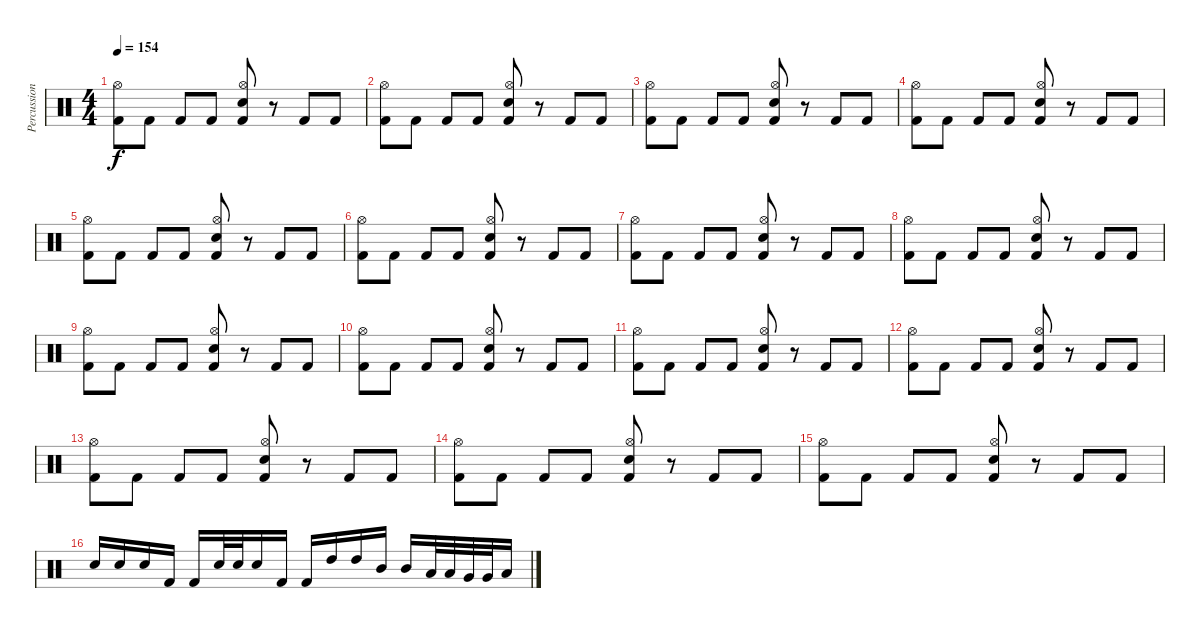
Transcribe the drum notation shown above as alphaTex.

\track ("Percussion" "Percussion") {instrument percussion}
\staff {score}
\articulation defaults
\ts (4 4)
\tempo 154
\clef neutral
\ks c
("Kick (hit) 2" "Hi-Hat (open)").8{dy f} "Kick (hit) 2".8 "Kick (hit) 2".8 "Kick (hit) 2".8 ("Kick (hit) 2" "Electric Snare (hit)" "Hi-Hat (open)").8 r.8 "Kick (hit) 2".8 "Kick (hit) 2".8 |
("Kick (hit) 2" "Hi-Hat (open)").8 "Kick (hit) 2".8 "Kick (hit) 2".8 "Kick (hit) 2".8 ("Kick (hit) 2" "Electric Snare (hit)" "Hi-Hat (open)").8 r.8 "Kick (hit) 2".8 "Kick (hit) 2".8 |
("Kick (hit) 2" "Hi-Hat (open)").8 "Kick (hit) 2".8 "Kick (hit) 2".8 "Kick (hit) 2".8 ("Kick (hit) 2" "Electric Snare (hit)" "Hi-Hat (open)").8 r.8 "Kick (hit) 2".8 "Kick (hit) 2".8 |
("Kick (hit) 2" "Hi-Hat (open)").8 "Kick (hit) 2".8 "Kick (hit) 2".8 "Kick (hit) 2".8 ("Kick (hit) 2" "Electric Snare (hit)" "Hi-Hat (open)").8 r.8 "Kick (hit) 2".8 "Kick (hit) 2".8 |
("Kick (hit) 2" "Hi-Hat (open)").8 "Kick (hit) 2".8 "Kick (hit) 2".8 "Kick (hit) 2".8 ("Kick (hit) 2" "Electric Snare (hit)" "Hi-Hat (open)").8 r.8 "Kick (hit) 2".8 "Kick (hit) 2".8 |
("Kick (hit) 2" "Hi-Hat (open)").8 "Kick (hit) 2".8 "Kick (hit) 2".8 "Kick (hit) 2".8 ("Kick (hit) 2" "Electric Snare (hit)" "Hi-Hat (open)").8 r.8 "Kick (hit) 2".8 "Kick (hit) 2".8 |
("Kick (hit) 2" "Hi-Hat (open)").8 "Kick (hit) 2".8 "Kick (hit) 2".8 "Kick (hit) 2".8 ("Kick (hit) 2" "Electric Snare (hit)" "Hi-Hat (open)").8 r.8 "Kick (hit) 2".8 "Kick (hit) 2".8 |
("Kick (hit) 2" "Hi-Hat (open)").8 "Kick (hit) 2".8 "Kick (hit) 2".8 "Kick (hit) 2".8 ("Kick (hit) 2" "Electric Snare (hit)" "Hi-Hat (open)").8 r.8 "Kick (hit) 2".8 "Kick (hit) 2".8 |
("Kick (hit) 2" "Hi-Hat (open)").8 "Kick (hit) 2".8 "Kick (hit) 2".8 "Kick (hit) 2".8 ("Kick (hit) 2" "Electric Snare (hit)" "Hi-Hat (open)").8 r.8 "Kick (hit) 2".8 "Kick (hit) 2".8 |
("Kick (hit) 2" "Hi-Hat (open)").8 "Kick (hit) 2".8 "Kick (hit) 2".8 "Kick (hit) 2".8 ("Kick (hit) 2" "Electric Snare (hit)" "Hi-Hat (open)").8 r.8 "Kick (hit) 2".8 "Kick (hit) 2".8 |
("Kick (hit) 2" "Hi-Hat (open)").8 "Kick (hit) 2".8 "Kick (hit) 2".8 "Kick (hit) 2".8 ("Kick (hit) 2" "Electric Snare (hit)" "Hi-Hat (open)").8 r.8 "Kick (hit) 2".8 "Kick (hit) 2".8 |
("Kick (hit) 2" "Hi-Hat (open)").8 "Kick (hit) 2".8 "Kick (hit) 2".8 "Kick (hit) 2".8 ("Kick (hit) 2" "Electric Snare (hit)" "Hi-Hat (open)").8 r.8 "Kick (hit) 2".8 "Kick (hit) 2".8 |
("Kick (hit) 2" "Hi-Hat (open)").8 "Kick (hit) 2".8 "Kick (hit) 2".8 "Kick (hit) 2".8 ("Kick (hit) 2" "Electric Snare (hit)" "Hi-Hat (open)").8 r.8 "Kick (hit) 2".8 "Kick (hit) 2".8 |
("Kick (hit) 2" "Hi-Hat (open)").8 "Kick (hit) 2".8 "Kick (hit) 2".8 "Kick (hit) 2".8 ("Kick (hit) 2" "Electric Snare (hit)" "Hi-Hat (open)").8 r.8 "Kick (hit) 2".8 "Kick (hit) 2".8 |
("Kick (hit) 2" "Hi-Hat (open)").8 "Kick (hit) 2".8 "Kick (hit) 2".8 "Kick (hit) 2".8 ("Kick (hit) 2" "Electric Snare (hit)" "Hi-Hat (open)").8 r.8 "Kick (hit) 2".8 "Kick (hit) 2".8 |
"Electric Snare (hit)".16 "Electric Snare (hit)".16 "Electric Snare (hit)".16 "Kick (hit) 2".16 "Kick (hit) 2".16 "Electric Snare (hit)".32 "Electric Snare (hit)".32 "Electric Snare (hit)".16 "Kick (hit) 2".16 "Kick (hit) 2".16 "High Tom (hit)".16 "High Tom (hit)".16 "Mid Tom (hit)".16 "Mid Tom (hit)".16 "Low Tom (hit)".32 "Low Tom (hit)".32 "Very Low Tom (hit)".32 "Very Low Tom (hit)".32 "Low Floor Tom (hit)".16
